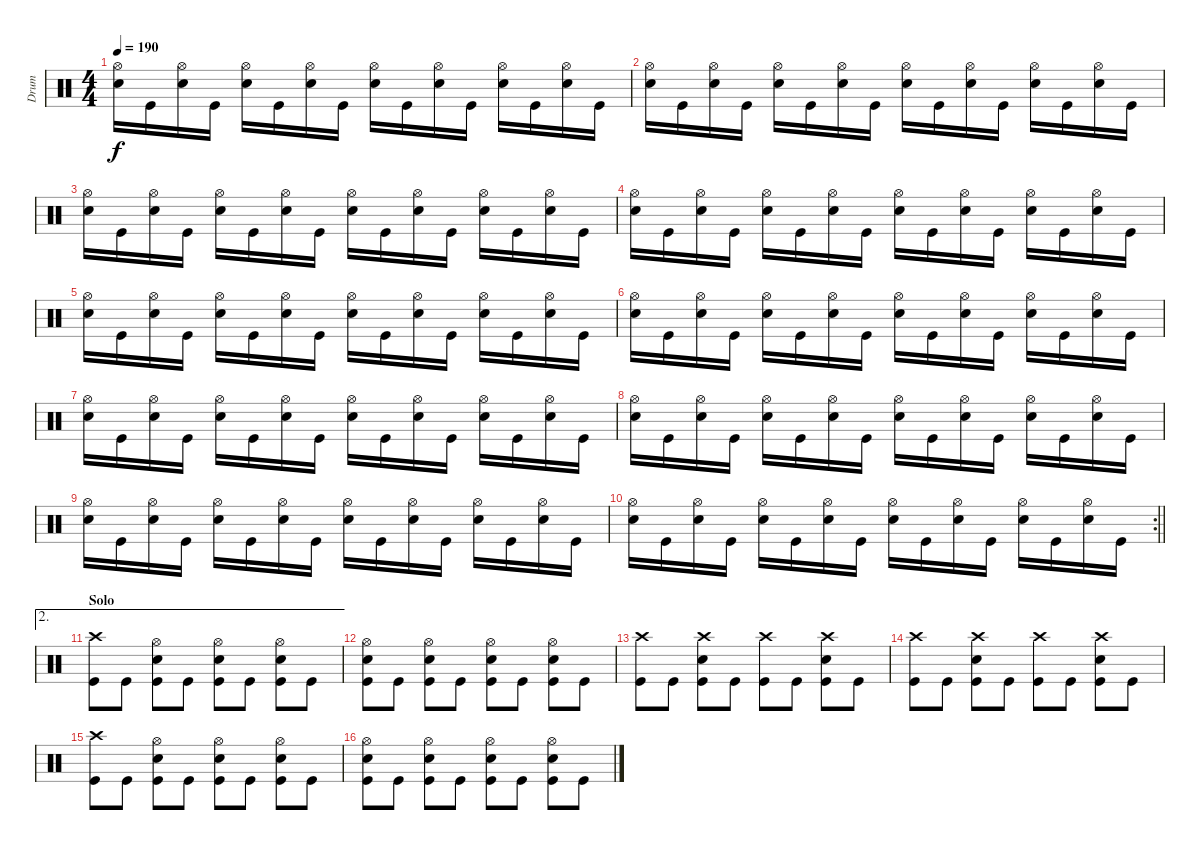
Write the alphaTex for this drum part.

\track ("Drum" "Drum") {instrument percussion}
\staff {score}
\articulation defaults
\ts (4 4)
\tempo 190
\clef neutral
\ks c
("Hi-Hat (open)" "Snare (hit) 2").16{dy f} "Kick (hit)".16 ("Hi-Hat (open)" "Snare (hit) 2").16 "Kick (hit)".16 ("Hi-Hat (open)" "Snare (hit) 2").16 "Kick (hit)".16 ("Hi-Hat (open)" "Snare (hit) 2").16 "Kick (hit)".16 ("Hi-Hat (open)" "Snare (hit) 2").16 "Kick (hit)".16 ("Hi-Hat (open)" "Snare (hit) 2").16 "Kick (hit)".16 ("Hi-Hat (open)" "Snare (hit) 2").16 "Kick (hit)".16 ("Hi-Hat (open)" "Snare (hit) 2").16 "Kick (hit)".16 |
("Hi-Hat (open)" "Snare (hit) 2").16 "Kick (hit)".16 ("Hi-Hat (open)" "Snare (hit) 2").16 "Kick (hit)".16 ("Hi-Hat (open)" "Snare (hit) 2").16 "Kick (hit)".16 ("Hi-Hat (open)" "Snare (hit) 2").16 "Kick (hit)".16 ("Hi-Hat (open)" "Snare (hit) 2").16 "Kick (hit)".16 ("Hi-Hat (open)" "Snare (hit) 2").16 "Kick (hit)".16 ("Hi-Hat (open)" "Snare (hit) 2").16 "Kick (hit)".16 ("Hi-Hat (open)" "Snare (hit) 2").16 "Kick (hit)".16 |
("Hi-Hat (open)" "Snare (hit) 2").16 "Kick (hit)".16 ("Hi-Hat (open)" "Snare (hit) 2").16 "Kick (hit)".16 ("Hi-Hat (open)" "Snare (hit) 2").16 "Kick (hit)".16 ("Hi-Hat (open)" "Snare (hit) 2").16 "Kick (hit)".16 ("Hi-Hat (open)" "Snare (hit) 2").16 "Kick (hit)".16 ("Hi-Hat (open)" "Snare (hit) 2").16 "Kick (hit)".16 ("Hi-Hat (open)" "Snare (hit) 2").16 "Kick (hit)".16 ("Hi-Hat (open)" "Snare (hit) 2").16 "Kick (hit)".16 |
("Hi-Hat (open)" "Snare (hit) 2").16 "Kick (hit)".16 ("Hi-Hat (open)" "Snare (hit) 2").16 "Kick (hit)".16 ("Hi-Hat (open)" "Snare (hit) 2").16 "Kick (hit)".16 ("Hi-Hat (open)" "Snare (hit) 2").16 "Kick (hit)".16 ("Hi-Hat (open)" "Snare (hit) 2").16 "Kick (hit)".16 ("Hi-Hat (open)" "Snare (hit) 2").16 "Kick (hit)".16 ("Hi-Hat (open)" "Snare (hit) 2").16 "Kick (hit)".16 ("Hi-Hat (open)" "Snare (hit) 2").16 "Kick (hit)".16 |
("Hi-Hat (open)" "Snare (hit) 2").16 "Kick (hit)".16 ("Hi-Hat (open)" "Snare (hit) 2").16 "Kick (hit)".16 ("Hi-Hat (open)" "Snare (hit) 2").16 "Kick (hit)".16 ("Hi-Hat (open)" "Snare (hit) 2").16 "Kick (hit)".16 ("Hi-Hat (open)" "Snare (hit) 2").16 "Kick (hit)".16 ("Hi-Hat (open)" "Snare (hit) 2").16 "Kick (hit)".16 ("Hi-Hat (open)" "Snare (hit) 2").16 "Kick (hit)".16 ("Hi-Hat (open)" "Snare (hit) 2").16 "Kick (hit)".16 |
("Hi-Hat (open)" "Snare (hit) 2").16 "Kick (hit)".16 ("Hi-Hat (open)" "Snare (hit) 2").16 "Kick (hit)".16 ("Hi-Hat (open)" "Snare (hit) 2").16 "Kick (hit)".16 ("Hi-Hat (open)" "Snare (hit) 2").16 "Kick (hit)".16 ("Hi-Hat (open)" "Snare (hit) 2").16 "Kick (hit)".16 ("Hi-Hat (open)" "Snare (hit) 2").16 "Kick (hit)".16 ("Hi-Hat (open)" "Snare (hit) 2").16 "Kick (hit)".16 ("Hi-Hat (open)" "Snare (hit) 2").16 "Kick (hit)".16 |
("Hi-Hat (open)" "Snare (hit) 2").16 "Kick (hit)".16 ("Hi-Hat (open)" "Snare (hit) 2").16 "Kick (hit)".16 ("Hi-Hat (open)" "Snare (hit) 2").16 "Kick (hit)".16 ("Hi-Hat (open)" "Snare (hit) 2").16 "Kick (hit)".16 ("Hi-Hat (open)" "Snare (hit) 2").16 "Kick (hit)".16 ("Hi-Hat (open)" "Snare (hit) 2").16 "Kick (hit)".16 ("Hi-Hat (open)" "Snare (hit) 2").16 "Kick (hit)".16 ("Hi-Hat (open)" "Snare (hit) 2").16 "Kick (hit)".16 |
("Hi-Hat (open)" "Snare (hit) 2").16 "Kick (hit)".16 ("Hi-Hat (open)" "Snare (hit) 2").16 "Kick (hit)".16 ("Hi-Hat (open)" "Snare (hit) 2").16 "Kick (hit)".16 ("Hi-Hat (open)" "Snare (hit) 2").16 "Kick (hit)".16 ("Hi-Hat (open)" "Snare (hit) 2").16 "Kick (hit)".16 ("Hi-Hat (open)" "Snare (hit) 2").16 "Kick (hit)".16 ("Hi-Hat (open)" "Snare (hit) 2").16 "Kick (hit)".16 ("Hi-Hat (open)" "Snare (hit) 2").16 "Kick (hit)".16 |
("Hi-Hat (open)" "Snare (hit) 2").16 "Kick (hit)".16 ("Hi-Hat (open)" "Snare (hit) 2").16 "Kick (hit)".16 ("Hi-Hat (open)" "Snare (hit) 2").16 "Kick (hit)".16 ("Hi-Hat (open)" "Snare (hit) 2").16 "Kick (hit)".16 ("Hi-Hat (open)" "Snare (hit) 2").16 "Kick (hit)".16 ("Hi-Hat (open)" "Snare (hit) 2").16 "Kick (hit)".16 ("Hi-Hat (open)" "Snare (hit) 2").16 "Kick (hit)".16 ("Hi-Hat (open)" "Snare (hit) 2").16 "Kick (hit)".16 |
\rc 2
\barLineRight lightlight
("Hi-Hat (open)" "Snare (hit) 2").16 "Kick (hit)".16 ("Hi-Hat (open)" "Snare (hit) 2").16 "Kick (hit)".16 ("Hi-Hat (open)" "Snare (hit) 2").16 "Kick (hit)".16 ("Hi-Hat (open)" "Snare (hit) 2").16 "Kick (hit)".16 ("Hi-Hat (open)" "Snare (hit) 2").16 "Kick (hit)".16 ("Hi-Hat (open)" "Snare (hit) 2").16 "Kick (hit)".16 ("Hi-Hat (open)" "Snare (hit) 2").16 "Kick (hit)".16 ("Hi-Hat (open)" "Snare (hit) 2").16 "Kick (hit)".16 |
\ae 2
\section ("" "Solo")
("Crash high (hit)" "Kick (hit)").8 "Kick (hit)".8 ("Hi-Hat (open)" "Snare (hit) 2" "Kick (hit)").8 "Kick (hit)".8 ("Hi-Hat (open)" "Snare (hit) 2" "Kick (hit)").8 "Kick (hit)".8 ("Hi-Hat (open)" "Snare (hit) 2" "Kick (hit)").8 "Kick (hit)".8 |
("Hi-Hat (open)" "Snare (hit) 2" "Kick (hit)").8 "Kick (hit)".8 ("Hi-Hat (open)" "Snare (hit) 2" "Kick (hit)").8 "Kick (hit)".8 ("Hi-Hat (open)" "Snare (hit) 2" "Kick (hit)").8 "Kick (hit)".8 ("Hi-Hat (open)" "Snare (hit) 2" "Kick (hit)").8 "Kick (hit)".8 |
("Crash high (hit)" "Kick (hit)").8 "Kick (hit)".8 ("Crash high (hit)" "Kick (hit)" "Snare (hit) 2").8 "Kick (hit)".8 ("Crash high (hit)" "Kick (hit)").8 "Kick (hit)".8 ("Snare (hit) 2" "Kick (hit)" "Crash high (hit)").8 "Kick (hit)".8 |
("Crash high (hit)" "Kick (hit)").8 "Kick (hit)".8 ("Crash high (hit)" "Kick (hit)" "Snare (hit) 2").8 "Kick (hit)".8 ("Crash high (hit)" "Kick (hit)").8 "Kick (hit)".8 ("Snare (hit) 2" "Kick (hit)" "Crash high (hit)").8 "Kick (hit)".8 |
("Crash high (hit)" "Kick (hit)").8 "Kick (hit)".8 ("Hi-Hat (open)" "Snare (hit) 2" "Kick (hit)").8 "Kick (hit)".8 ("Hi-Hat (open)" "Snare (hit) 2" "Kick (hit)").8 "Kick (hit)".8 ("Hi-Hat (open)" "Snare (hit) 2" "Kick (hit)").8 "Kick (hit)".8 |
("Hi-Hat (open)" "Snare (hit) 2" "Kick (hit)").8 "Kick (hit)".8 ("Hi-Hat (open)" "Snare (hit) 2" "Kick (hit)").8 "Kick (hit)".8 ("Hi-Hat (open)" "Snare (hit) 2" "Kick (hit)").8 "Kick (hit)".8 ("Hi-Hat (open)" "Snare (hit) 2" "Kick (hit)").8 "Kick (hit)".8
